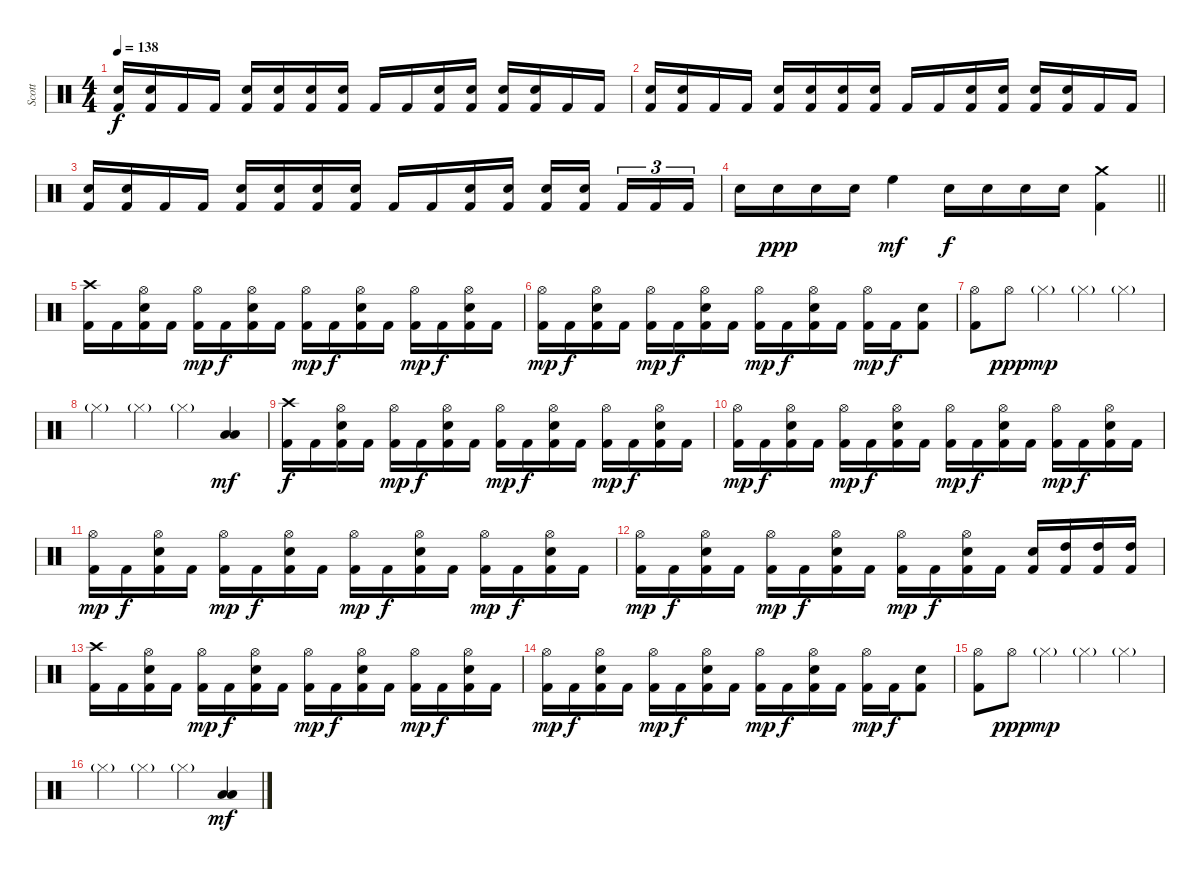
\track ("Scott" "Scott") {instrument percussion}
\staff {score}
\articulation defaults
\ts (4 4)
\tempo 138
\clef neutral
\ks c
("Electric Snare (hit)" "Kick (hit) 2").16{dy f} ("Electric Snare (hit)" "Kick (hit) 2").16 "Kick (hit) 2".16 "Kick (hit) 2".16 ("Electric Snare (hit)" "Kick (hit) 2").16 ("Electric Snare (hit)" "Kick (hit) 2").16 ("Electric Snare (hit)" "Kick (hit) 2").16 ("Electric Snare (hit)" "Kick (hit) 2").16 "Kick (hit) 2".16 "Kick (hit) 2".16 ("Electric Snare (hit)" "Kick (hit) 2").16 ("Electric Snare (hit)" "Kick (hit) 2").16 ("Electric Snare (hit)" "Kick (hit) 2").16 ("Electric Snare (hit)" "Kick (hit) 2").16 "Kick (hit) 2".16 "Kick (hit) 2".16 |
("Electric Snare (hit)" "Kick (hit) 2").16 ("Electric Snare (hit)" "Kick (hit) 2").16 "Kick (hit) 2".16 "Kick (hit) 2".16 ("Electric Snare (hit)" "Kick (hit) 2").16 ("Electric Snare (hit)" "Kick (hit) 2").16 ("Electric Snare (hit)" "Kick (hit) 2").16 ("Electric Snare (hit)" "Kick (hit) 2").16 "Kick (hit) 2".16 "Kick (hit) 2".16 ("Electric Snare (hit)" "Kick (hit) 2").16 ("Electric Snare (hit)" "Kick (hit) 2").16 ("Electric Snare (hit)" "Kick (hit) 2").16 ("Electric Snare (hit)" "Kick (hit) 2").16 "Kick (hit) 2".16 "Kick (hit) 2".16 |
("Electric Snare (hit)" "Kick (hit) 2").16 ("Electric Snare (hit)" "Kick (hit) 2").16 "Kick (hit) 2".16 "Kick (hit) 2".16 ("Electric Snare (hit)" "Kick (hit) 2").16 ("Electric Snare (hit)" "Kick (hit) 2").16 ("Electric Snare (hit)" "Kick (hit) 2").16 ("Electric Snare (hit)" "Kick (hit) 2").16 "Kick (hit) 2".16 "Kick (hit) 2".16 ("Electric Snare (hit)" "Kick (hit) 2").16 ("Electric Snare (hit)" "Kick (hit) 2").16 ("Electric Snare (hit)" "Kick (hit) 2").16 ("Electric Snare (hit)" "Kick (hit) 2").16 "Kick (hit) 2".16{tu (3 2)} "Kick (hit) 2".16{tu (3 2)} "Kick (hit) 2".16{tu (3 2)} |
\barLineRight lightlight "Electric Snare (hit)".16 "Electric Snare (hit)".16{dy ppp} "Electric Snare (hit)".16 "Electric Snare (hit)".16 "High Floor Tom (hit)".4{dy mf} "Electric Snare (hit)".16{dy f} "Electric Snare (hit)".16 "Electric Snare (hit)".16 "Electric Snare (hit)".16
("Crash medium (hit)" "Kick (hit) 2").4 |
("Crash high (hit)" "Kick (hit) 2").16 "Kick (hit) 2".16 ("Hi-Hat (open)" "Electric Snare (hit)" "Kick (hit) 2").16 "Kick (hit) 2".16 ("Hi-Hat (open)" "Kick (hit) 2").16{dy mp} "Kick (hit) 2".16{dy f} ("Hi-Hat (open)" "Electric Snare (hit)" "Kick (hit) 2").16 "Kick (hit) 2".16 ("Hi-Hat (open)" "Kick (hit) 2").16{dy mp} "Kick (hit) 2".16{dy f} ("Hi-Hat (open)" "Electric Snare (hit)" "Kick (hit) 2").16 "Kick (hit) 2".16 ("Hi-Hat (open)" "Kick (hit) 2").16{dy mp} "Kick (hit) 2".16{dy f} ("Hi-Hat (open)" "Electric Snare (hit)" "Kick (hit) 2").16 "Kick (hit) 2".16 |
("Hi-Hat (open)" "Kick (hit) 2").16{dy mp} "Kick (hit) 2".16{dy f} ("Hi-Hat (open)" "Electric Snare (hit)" "Kick (hit) 2").16 "Kick (hit) 2".16 ("Hi-Hat (open)" "Kick (hit) 2").16{dy mp} "Kick (hit) 2".16{dy f} ("Hi-Hat (open)" "Electric Snare (hit)" "Kick (hit) 2").16 "Kick (hit) 2".16 ("Hi-Hat (open)" "Kick (hit) 2").16{dy mp} "Kick (hit) 2".16{dy f} ("Hi-Hat (open)" "Electric Snare (hit)" "Kick (hit) 2").16 "Kick (hit) 2".16 ("Hi-Hat (open)" "Kick (hit) 2").16{dy mp} "Kick (hit) 2".16{dy f} ("Electric Snare (hit)" "Kick (hit) 2").8 |
("Hi-Hat (open)" "Kick (hit) 2").8 "Hi-Hat (open)".8{dy ppp} "Hi-Hat (closed)"{g}.4{dy mp} "Hi-Hat (closed)"{g}.4 "Hi-Hat (closed)"{g}.4 |
"Hi-Hat (closed)"{g}.4 "Hi-Hat (closed)"{g}.4 "Hi-Hat (closed)"{g}.4 ("Low Tom (hit)" "Low Floor Tom (hit)").4{dy mf} |
("Crash high (hit)" "Kick (hit) 2").16{dy f} "Kick (hit) 2".16 ("Hi-Hat (open)" "Electric Snare (hit)" "Kick (hit) 2").16 "Kick (hit) 2".16 ("Hi-Hat (open)" "Kick (hit) 2").16{dy mp} "Kick (hit) 2".16{dy f} ("Hi-Hat (open)" "Electric Snare (hit)" "Kick (hit) 2").16 "Kick (hit) 2".16 ("Hi-Hat (open)" "Kick (hit) 2").16{dy mp} "Kick (hit) 2".16{dy f} ("Hi-Hat (open)" "Electric Snare (hit)" "Kick (hit) 2").16 "Kick (hit) 2".16 ("Hi-Hat (open)" "Kick (hit) 2").16{dy mp} "Kick (hit) 2".16{dy f} ("Hi-Hat (open)" "Electric Snare (hit)" "Kick (hit) 2").16 "Kick (hit) 2".16 |
("Hi-Hat (open)" "Kick (hit) 2").16{dy mp} "Kick (hit) 2".16{dy f} ("Hi-Hat (open)" "Electric Snare (hit)" "Kick (hit) 2").16 "Kick (hit) 2".16 ("Hi-Hat (open)" "Kick (hit) 2").16{dy mp} "Kick (hit) 2".16{dy f} ("Hi-Hat (open)" "Electric Snare (hit)" "Kick (hit) 2").16 "Kick (hit) 2".16 ("Hi-Hat (open)" "Kick (hit) 2").16{dy mp} "Kick (hit) 2".16{dy f} ("Hi-Hat (open)" "Electric Snare (hit)" "Kick (hit) 2").16 "Kick (hit) 2".16 ("Hi-Hat (open)" "Kick (hit) 2").16{dy mp} "Kick (hit) 2".16{dy f} ("Hi-Hat (open)" "Electric Snare (hit)" "Kick (hit) 2").16 "Kick (hit) 2".16 |
("Hi-Hat (open)" "Kick (hit) 2").16{dy mp} "Kick (hit) 2".16{dy f} ("Hi-Hat (open)" "Electric Snare (hit)" "Kick (hit) 2").16 "Kick (hit) 2".16 ("Hi-Hat (open)" "Kick (hit) 2").16{dy mp} "Kick (hit) 2".16{dy f} ("Hi-Hat (open)" "Electric Snare (hit)" "Kick (hit) 2").16 "Kick (hit) 2".16 ("Hi-Hat (open)" "Kick (hit) 2").16{dy mp} "Kick (hit) 2".16{dy f} ("Hi-Hat (open)" "Electric Snare (hit)" "Kick (hit) 2").16 "Kick (hit) 2".16 ("Hi-Hat (open)" "Kick (hit) 2").16{dy mp} "Kick (hit) 2".16{dy f} ("Hi-Hat (open)" "Electric Snare (hit)" "Kick (hit) 2").16 "Kick (hit) 2".16 |
("Hi-Hat (open)" "Kick (hit) 2").16{dy mp} "Kick (hit) 2".16{dy f} ("Hi-Hat (open)" "Electric Snare (hit)" "Kick (hit) 2").16 "Kick (hit) 2".16 ("Hi-Hat (open)" "Kick (hit) 2").16{dy mp} "Kick (hit) 2".16{dy f} ("Hi-Hat (open)" "Electric Snare (hit)" "Kick (hit) 2").16 "Kick (hit) 2".16 ("Hi-Hat (open)" "Kick (hit) 2").16{dy mp} "Kick (hit) 2".16{dy f} ("Hi-Hat (open)" "Electric Snare (hit)" "Kick (hit) 2").16 "Kick (hit) 2".16 ("Electric Snare (hit)" "Kick (hit) 2").16 ("High Tom (hit)" "Kick (hit) 2").16 ("High Tom (hit)" "Kick (hit) 2").16 ("High Tom (hit)" "Kick (hit) 2").16 |
("Crash high (hit)" "Kick (hit) 2").16 "Kick (hit) 2".16 ("Hi-Hat (open)" "Electric Snare (hit)" "Kick (hit) 2").16 "Kick (hit) 2".16 ("Hi-Hat (open)" "Kick (hit) 2").16{dy mp} "Kick (hit) 2".16{dy f} ("Hi-Hat (open)" "Electric Snare (hit)" "Kick (hit) 2").16 "Kick (hit) 2".16 ("Hi-Hat (open)" "Kick (hit) 2").16{dy mp} "Kick (hit) 2".16{dy f} ("Hi-Hat (open)" "Electric Snare (hit)" "Kick (hit) 2").16 "Kick (hit) 2".16 ("Hi-Hat (open)" "Kick (hit) 2").16{dy mp} "Kick (hit) 2".16{dy f} ("Hi-Hat (open)" "Electric Snare (hit)" "Kick (hit) 2").16 "Kick (hit) 2".16 |
("Hi-Hat (open)" "Kick (hit) 2").16{dy mp} "Kick (hit) 2".16{dy f} ("Hi-Hat (open)" "Electric Snare (hit)" "Kick (hit) 2").16 "Kick (hit) 2".16 ("Hi-Hat (open)" "Kick (hit) 2").16{dy mp} "Kick (hit) 2".16{dy f} ("Hi-Hat (open)" "Electric Snare (hit)" "Kick (hit) 2").16 "Kick (hit) 2".16 ("Hi-Hat (open)" "Kick (hit) 2").16{dy mp} "Kick (hit) 2".16{dy f} ("Hi-Hat (open)" "Electric Snare (hit)" "Kick (hit) 2").16 "Kick (hit) 2".16 ("Hi-Hat (open)" "Kick (hit) 2").16{dy mp} "Kick (hit) 2".16{dy f} ("Electric Snare (hit)" "Kick (hit) 2").8 |
("Hi-Hat (open)" "Kick (hit) 2").8 "Hi-Hat (open)".8{dy ppp} "Hi-Hat (closed)"{g}.4{dy mp} "Hi-Hat (closed)"{g}.4 "Hi-Hat (closed)"{g}.4 |
"Hi-Hat (closed)"{g}.4 "Hi-Hat (closed)"{g}.4 "Hi-Hat (closed)"{g}.4 ("Low Tom (hit)" "Low Floor Tom (hit)").4{dy mf}
